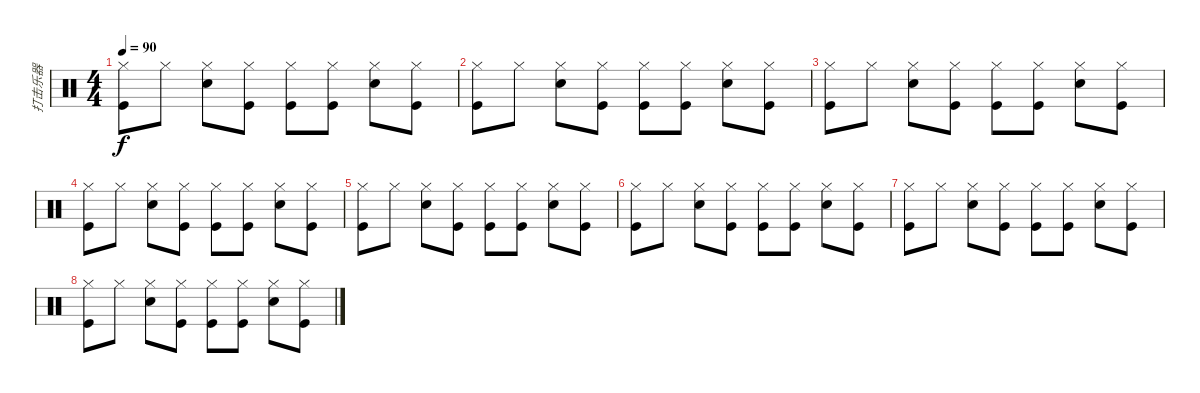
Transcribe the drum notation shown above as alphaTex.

\track ("打击乐器" "打击乐器") {instrument percussion}
\staff {score}
\articulation defaults
\ts (4 4)
\tempo 90
\clef neutral
\ks c
("Hi-Hat (closed)" "Kick (hit)").8{dy f} "Hi-Hat (closed)".8 ("Hi-Hat (closed)" "Snare (hit) 2").8 ("Hi-Hat (closed)" "Kick (hit)").8 ("Hi-Hat (closed)" "Kick (hit)").8 ("Hi-Hat (closed)" "Kick (hit)").8 ("Hi-Hat (closed)" "Snare (hit) 2").8 ("Hi-Hat (closed)" "Kick (hit)").8 |
("Hi-Hat (closed)" "Kick (hit)").8 "Hi-Hat (closed)".8 ("Hi-Hat (closed)" "Snare (hit) 2").8 ("Hi-Hat (closed)" "Kick (hit)").8 ("Hi-Hat (closed)" "Kick (hit)").8 ("Hi-Hat (closed)" "Kick (hit)").8 ("Hi-Hat (closed)" "Snare (hit) 2").8 ("Hi-Hat (closed)" "Kick (hit)").8 |
("Hi-Hat (closed)" "Kick (hit)").8 "Hi-Hat (closed)".8 ("Hi-Hat (closed)" "Snare (hit) 2").8 ("Hi-Hat (closed)" "Kick (hit)").8 ("Hi-Hat (closed)" "Kick (hit)").8 ("Hi-Hat (closed)" "Kick (hit)").8 ("Hi-Hat (closed)" "Snare (hit) 2").8 ("Hi-Hat (closed)" "Kick (hit)").8 |
("Hi-Hat (closed)" "Kick (hit)").8 "Hi-Hat (closed)".8 ("Hi-Hat (closed)" "Snare (hit) 2").8 ("Hi-Hat (closed)" "Kick (hit)").8 ("Hi-Hat (closed)" "Kick (hit)").8 ("Hi-Hat (closed)" "Kick (hit)").8 ("Hi-Hat (closed)" "Snare (hit) 2").8 ("Hi-Hat (closed)" "Kick (hit)").8 |
("Hi-Hat (closed)" "Kick (hit)").8 "Hi-Hat (closed)".8 ("Hi-Hat (closed)" "Snare (hit) 2").8 ("Hi-Hat (closed)" "Kick (hit)").8 ("Hi-Hat (closed)" "Kick (hit)").8 ("Hi-Hat (closed)" "Kick (hit)").8 ("Hi-Hat (closed)" "Snare (hit) 2").8 ("Hi-Hat (closed)" "Kick (hit)").8 |
("Hi-Hat (closed)" "Kick (hit)").8 "Hi-Hat (closed)".8 ("Hi-Hat (closed)" "Snare (hit) 2").8 ("Hi-Hat (closed)" "Kick (hit)").8 ("Hi-Hat (closed)" "Kick (hit)").8 ("Hi-Hat (closed)" "Kick (hit)").8 ("Hi-Hat (closed)" "Snare (hit) 2").8 ("Hi-Hat (closed)" "Kick (hit)").8 |
("Hi-Hat (closed)" "Kick (hit)").8 "Hi-Hat (closed)".8 ("Hi-Hat (closed)" "Snare (hit) 2").8 ("Hi-Hat (closed)" "Kick (hit)").8 ("Hi-Hat (closed)" "Kick (hit)").8 ("Hi-Hat (closed)" "Kick (hit)").8 ("Hi-Hat (closed)" "Snare (hit) 2").8 ("Hi-Hat (closed)" "Kick (hit)").8 |
("Hi-Hat (closed)" "Kick (hit)").8 "Hi-Hat (closed)".8 ("Hi-Hat (closed)" "Snare (hit) 2").8 ("Hi-Hat (closed)" "Kick (hit)").8 ("Hi-Hat (closed)" "Kick (hit)").8 ("Hi-Hat (closed)" "Kick (hit)").8 ("Hi-Hat (closed)" "Snare (hit) 2").8 ("Hi-Hat (closed)" "Kick (hit)").8
